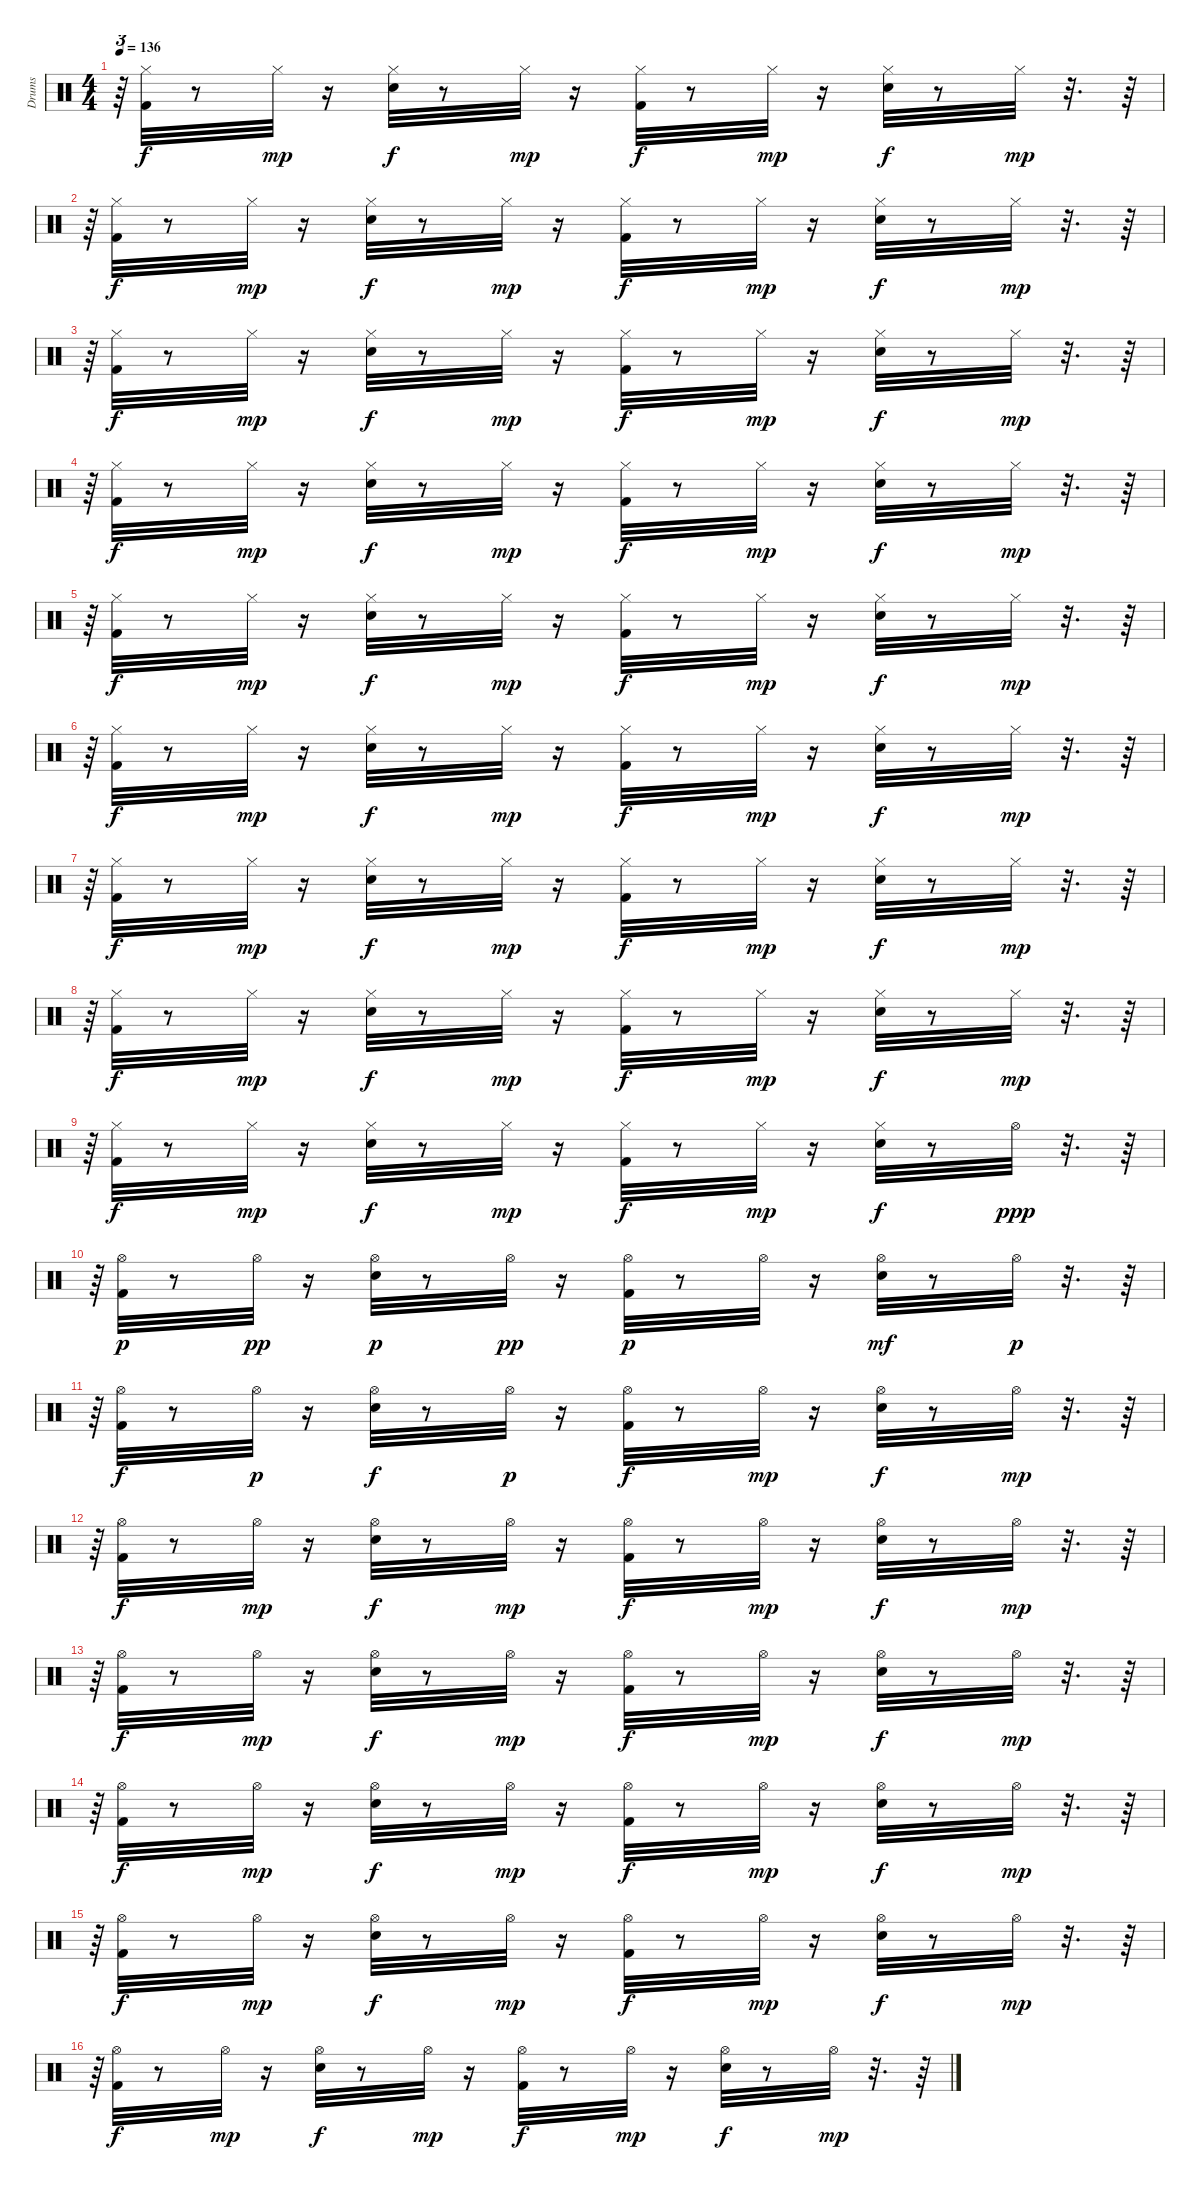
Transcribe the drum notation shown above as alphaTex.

\track ("Drums" "Drums") {instrument percussion}
\staff {score}
\articulation defaults
\ts (4 4)
\tempo 136
\clef neutral
\ks c
r.64{tu (3 2) dy mp} ("Kick (hit) 2" "Hi-Hat (closed)").32{dy f} r.8 "Hi-Hat (closed)".32{dy mp} r.16 ("Hi-Hat (closed)" "Electric Snare (hit)").32{dy f} r.8 "Hi-Hat (closed)".32{dy mp} r.16 ("Hi-Hat (closed)" "Kick (hit) 2").32{dy f} r.8 "Hi-Hat (closed)".32{dy mp} r.16 ("Hi-Hat (closed)" "Electric Snare (hit)").32{dy f} r.8 "Hi-Hat (closed)".32{dy mp} r.32{d} r.64 |
r.64{tu (3 2)} ("Kick (hit) 2" "Hi-Hat (closed)").32{dy f} r.8 "Hi-Hat (closed)".32{dy mp} r.16 ("Hi-Hat (closed)" "Electric Snare (hit)").32{dy f} r.8 "Hi-Hat (closed)".32{dy mp} r.16 ("Hi-Hat (closed)" "Kick (hit) 2").32{dy f} r.8 "Hi-Hat (closed)".32{dy mp} r.16 ("Hi-Hat (closed)" "Electric Snare (hit)").32{dy f} r.8 "Hi-Hat (closed)".32{dy mp} r.32{d} r.64 |
r.64{tu (3 2)} ("Kick (hit) 2" "Hi-Hat (closed)").32{dy f} r.8 "Hi-Hat (closed)".32{dy mp} r.16 ("Hi-Hat (closed)" "Electric Snare (hit)").32{dy f} r.8 "Hi-Hat (closed)".32{dy mp} r.16 ("Hi-Hat (closed)" "Kick (hit) 2").32{dy f} r.8 "Hi-Hat (closed)".32{dy mp} r.16 ("Hi-Hat (closed)" "Electric Snare (hit)").32{dy f} r.8 "Hi-Hat (closed)".32{dy mp} r.32{d} r.64 |
r.64{tu (3 2)} ("Kick (hit) 2" "Hi-Hat (closed)").32{dy f} r.8 "Hi-Hat (closed)".32{dy mp} r.16 ("Hi-Hat (closed)" "Electric Snare (hit)").32{dy f} r.8 "Hi-Hat (closed)".32{dy mp} r.16 ("Hi-Hat (closed)" "Kick (hit) 2").32{dy f} r.8 "Hi-Hat (closed)".32{dy mp} r.16 ("Hi-Hat (closed)" "Electric Snare (hit)").32{dy f} r.8 "Hi-Hat (closed)".32{dy mp} r.32{d} r.64 |
r.64{tu (3 2)} ("Kick (hit) 2" "Hi-Hat (closed)").32{dy f} r.8 "Hi-Hat (closed)".32{dy mp} r.16 ("Hi-Hat (closed)" "Electric Snare (hit)").32{dy f} r.8 "Hi-Hat (closed)".32{dy mp} r.16 ("Hi-Hat (closed)" "Kick (hit) 2").32{dy f} r.8 "Hi-Hat (closed)".32{dy mp} r.16 ("Hi-Hat (closed)" "Electric Snare (hit)").32{dy f} r.8 "Hi-Hat (closed)".32{dy mp} r.32{d} r.64 |
r.64{tu (3 2)} ("Kick (hit) 2" "Hi-Hat (closed)").32{dy f} r.8 "Hi-Hat (closed)".32{dy mp} r.16 ("Hi-Hat (closed)" "Electric Snare (hit)").32{dy f} r.8 "Hi-Hat (closed)".32{dy mp} r.16 ("Hi-Hat (closed)" "Kick (hit) 2").32{dy f} r.8 "Hi-Hat (closed)".32{dy mp} r.16 ("Hi-Hat (closed)" "Electric Snare (hit)").32{dy f} r.8 "Hi-Hat (closed)".32{dy mp} r.32{d} r.64 |
r.64{tu (3 2)} ("Kick (hit) 2" "Hi-Hat (closed)").32{dy f} r.8 "Hi-Hat (closed)".32{dy mp} r.16 ("Hi-Hat (closed)" "Electric Snare (hit)").32{dy f} r.8 "Hi-Hat (closed)".32{dy mp} r.16 ("Hi-Hat (closed)" "Kick (hit) 2").32{dy f} r.8 "Hi-Hat (closed)".32{dy mp} r.16 ("Hi-Hat (closed)" "Electric Snare (hit)").32{dy f} r.8 "Hi-Hat (closed)".32{dy mp} r.32{d} r.64 |
r.64{tu (3 2)} ("Kick (hit) 2" "Hi-Hat (closed)").32{dy f} r.8 "Hi-Hat (closed)".32{dy mp} r.16 ("Hi-Hat (closed)" "Electric Snare (hit)").32{dy f} r.8 "Hi-Hat (closed)".32{dy mp} r.16 ("Hi-Hat (closed)" "Kick (hit) 2").32{dy f} r.8 "Hi-Hat (closed)".32{dy mp} r.16 ("Hi-Hat (closed)" "Electric Snare (hit)").32{dy f} r.8 "Hi-Hat (closed)".32{dy mp} r.32{d} r.64 |
r.64{tu (3 2)} ("Kick (hit) 2" "Hi-Hat (closed)").32{dy f} r.8 "Hi-Hat (closed)".32{dy mp} r.16 ("Hi-Hat (closed)" "Electric Snare (hit)").32{dy f} r.8 "Hi-Hat (closed)".32{dy mp} r.16 ("Hi-Hat (closed)" "Kick (hit) 2").32{dy f} r.8 "Hi-Hat (closed)".32{dy mp} r.16 ("Hi-Hat (closed)" "Electric Snare (hit)").32{dy f} r.8 "Hi-Hat (open)".32{dy ppp} r.32{d} r.64 |
r.64{tu (3 2)} ("Hi-Hat (open)" "Kick (hit) 2").32{dy p} r.8 "Hi-Hat (open)".32{dy pp} r.16 ("Hi-Hat (open)" "Electric Snare (hit)").32{dy p} r.8 "Hi-Hat (open)".32{dy pp} r.16 ("Hi-Hat (open)" "Kick (hit) 2").32{dy p} r.8 "Hi-Hat (open)".32 r.16 ("Hi-Hat (open)" "Electric Snare (hit)").32{dy mf} r.8 "Hi-Hat (open)".32{dy p} r.32{d} r.64 |
r.64{tu (3 2)} ("Hi-Hat (open)" "Kick (hit) 2").32{dy f} r.8 "Hi-Hat (open)".32{dy p} r.16 ("Hi-Hat (open)" "Electric Snare (hit)").32{dy f} r.8 "Hi-Hat (open)".32{dy p} r.16 ("Hi-Hat (open)" "Kick (hit) 2").32{dy f} r.8 "Hi-Hat (open)".32{dy mp} r.16 ("Hi-Hat (open)" "Electric Snare (hit)").32{dy f} r.8 "Hi-Hat (open)".32{dy mp} r.32{d} r.64 |
r.64{tu (3 2)} ("Hi-Hat (open)" "Kick (hit) 2").32{dy f} r.8 "Hi-Hat (open)".32{dy mp} r.16 ("Hi-Hat (open)" "Electric Snare (hit)").32{dy f} r.8 "Hi-Hat (open)".32{dy mp} r.16 ("Hi-Hat (open)" "Kick (hit) 2").32{dy f} r.8 "Hi-Hat (open)".32{dy mp} r.16 ("Hi-Hat (open)" "Electric Snare (hit)").32{dy f} r.8 "Hi-Hat (open)".32{dy mp} r.32{d} r.64 |
r.64{tu (3 2)} ("Hi-Hat (open)" "Kick (hit) 2").32{dy f} r.8 "Hi-Hat (open)".32{dy mp} r.16 ("Hi-Hat (open)" "Electric Snare (hit)").32{dy f} r.8 "Hi-Hat (open)".32{dy mp} r.16 ("Hi-Hat (open)" "Kick (hit) 2").32{dy f} r.8 "Hi-Hat (open)".32{dy mp} r.16 ("Hi-Hat (open)" "Electric Snare (hit)").32{dy f} r.8 "Hi-Hat (open)".32{dy mp} r.32{d} r.64 |
r.64{tu (3 2)} ("Hi-Hat (open)" "Kick (hit) 2").32{dy f} r.8 "Hi-Hat (open)".32{dy mp} r.16 ("Hi-Hat (open)" "Electric Snare (hit)").32{dy f} r.8 "Hi-Hat (open)".32{dy mp} r.16 ("Hi-Hat (open)" "Kick (hit) 2").32{dy f} r.8 "Hi-Hat (open)".32{dy mp} r.16 ("Hi-Hat (open)" "Electric Snare (hit)").32{dy f} r.8 "Hi-Hat (open)".32{dy mp} r.32{d} r.64 |
r.64{tu (3 2)} ("Hi-Hat (open)" "Kick (hit) 2").32{dy f} r.8 "Hi-Hat (open)".32{dy mp} r.16 ("Hi-Hat (open)" "Electric Snare (hit)").32{dy f} r.8 "Hi-Hat (open)".32{dy mp} r.16 ("Hi-Hat (open)" "Kick (hit) 2").32{dy f} r.8 "Hi-Hat (open)".32{dy mp} r.16 ("Hi-Hat (open)" "Electric Snare (hit)").32{dy f} r.8 "Hi-Hat (open)".32{dy mp} r.32{d} r.64 |
r.64{tu (3 2)} ("Hi-Hat (open)" "Kick (hit) 2").32{dy f} r.8 "Hi-Hat (open)".32{dy mp} r.16 ("Hi-Hat (open)" "Electric Snare (hit)").32{dy f} r.8 "Hi-Hat (open)".32{dy mp} r.16 ("Hi-Hat (open)" "Kick (hit) 2").32{dy f} r.8 "Hi-Hat (open)".32{dy mp} r.16 ("Hi-Hat (open)" "Electric Snare (hit)").32{dy f} r.8 "Hi-Hat (open)".32{dy mp} r.32{d} r.64
